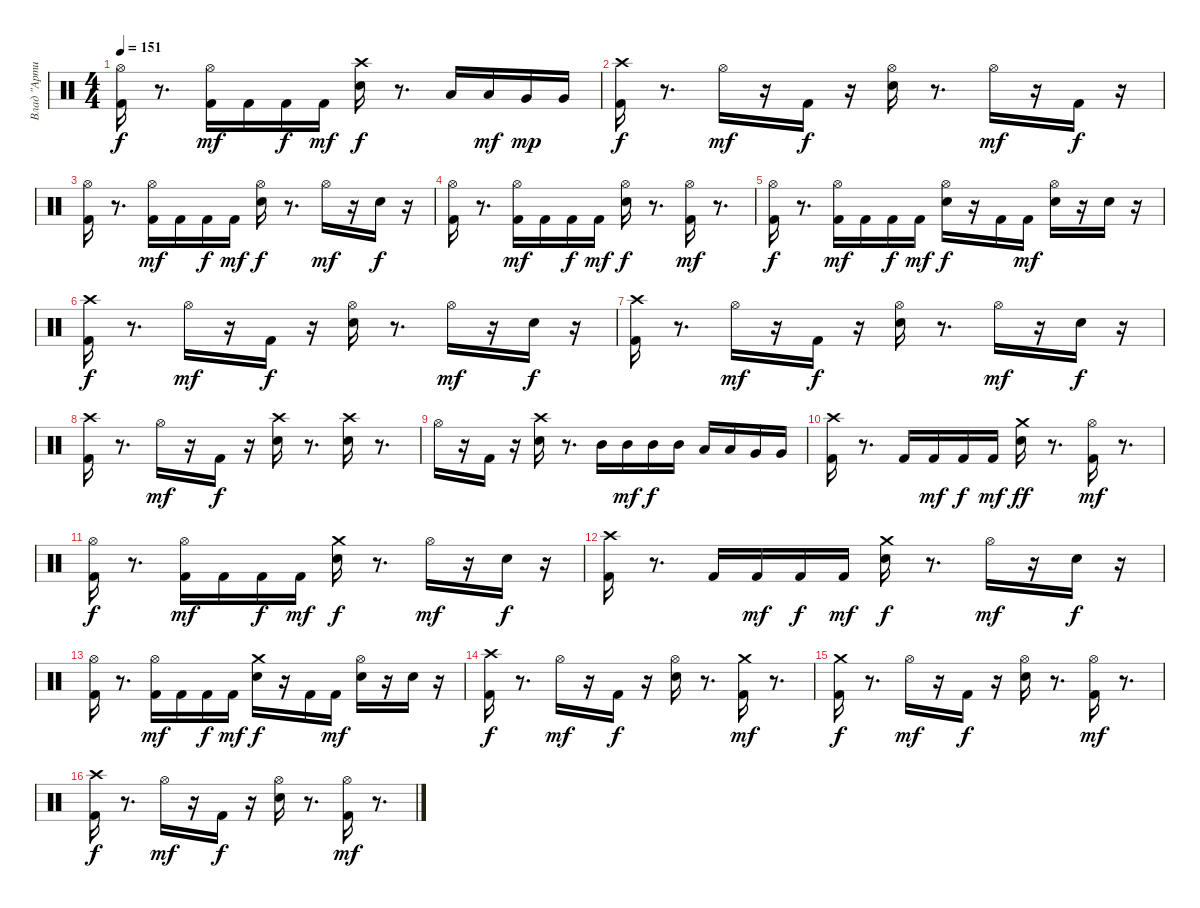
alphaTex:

\track ("Влад \"Артист\"" "Влад \"Арти") {instrument percussion}
\staff {score}
\articulation defaults
\ts (4 4)
\tempo 151
\clef neutral
\ks c
("Hi-Hat (open)" "Kick (hit) 2").16{dy f} r.8{d} ("Kick (hit) 2" "Hi-Hat (open)").16{dy mf} "Kick (hit) 2".16 "Kick (hit) 2".16{dy f} "Kick (hit) 2".16{dy mf} ("Snare (hit) 2" "Crash high (hit)").16{dy f} r.8{d} "Low Tom (hit)".16 "Low Tom (hit)".16{dy mf} "Very Low Tom (hit)".16{dy mp} "Very Low Tom (hit)".16 |
("Crash high (hit)" "Kick (hit) 2").16{dy f} r.8{d} "Hi-Hat (open)".16{dy mf} r.16 "Kick (hit) 2".16{dy f} r.16 ("Snare (hit) 2" "Hi-Hat (open)").16 r.8{d} "Hi-Hat (open)".16{dy mf} r.16 "Kick (hit) 2".16{dy f} r.16 |
("Kick (hit) 2" "Hi-Hat (open)").16 r.8{d} ("Hi-Hat (open)" "Kick (hit) 2").16{dy mf} "Kick (hit) 2".16 "Kick (hit) 2".16{dy f} "Kick (hit) 2".16{dy mf} ("Hi-Hat (open)" "Snare (hit) 2").16{dy f} r.8{d} "Hi-Hat (open)".16{dy mf} r.16 "Snare (hit) 2".16{dy f} r.16 |
("Hi-Hat (open)" "Kick (hit) 2").16 r.8{d} ("Hi-Hat (open)" "Kick (hit) 2").16{dy mf} "Kick (hit) 2".16 "Kick (hit) 2".16{dy f} "Kick (hit) 2".16{dy mf} ("Hi-Hat (open)" "Snare (hit) 2").16{dy f} r.8{d} ("Hi-Hat (open)" "Kick (hit) 2").16{dy mf} r.8{d} |
("Kick (hit) 2" "Hi-Hat (open)").16{dy f} r.8{d} ("Hi-Hat (open)" "Kick (hit) 2").16{dy mf} "Kick (hit) 2".16 "Kick (hit) 2".16{dy f} "Kick (hit) 2".16{dy mf} ("Hi-Hat (open)" "Snare (hit) 2").16{dy f} r.16 "Kick (hit) 2".16 "Kick (hit) 2".16{dy mf} ("Hi-Hat (open)" "Snare (hit) 2").16 r.16 "Snare (hit) 2".16 r.16 |
("Crash high (hit)" "Kick (hit) 2").16{dy f} r.8{d} "Hi-Hat (open)".16{dy mf} r.16 "Kick (hit) 2".16{dy f} r.16 ("Hi-Hat (open)" "Snare (hit) 2").16 r.8{d} "Hi-Hat (open)".16{dy mf} r.16 "Snare (hit) 2".16{dy f} r.16 |
("Crash high (hit)" "Kick (hit) 2").16 r.8{d} "Hi-Hat (open)".16{dy mf} r.16 "Kick (hit) 2".16{dy f} r.16 ("Snare (hit) 2" "Hi-Hat (open)").16 r.8{d} "Hi-Hat (open)".16{dy mf} r.16 "Snare (hit) 2".16{dy f} r.16 |
("Crash high (hit)" "Kick (hit) 2").16 r.8{d} "Hi-Hat (open)".16{dy mf} r.16 "Kick (hit) 2".16{dy f} r.16 ("Crash high (hit)" "Snare (hit) 2").16 r.8{d} ("Crash high (hit)" "Snare (hit) 2").16 r.8{d} |
"Hi-Hat (open)".16 r.16 "Kick (hit) 2".16 r.16 ("Snare (hit) 2" "Crash high (hit)").16 r.8{d} "Mid Tom (hit)".16 "Mid Tom (hit)".16{dy mf} "Mid Tom (hit)".16{dy f} "Mid Tom (hit)".16 "Low Tom (hit)".16 "Low Tom (hit)".16 "Very Low Tom (hit)".16 "Very Low Tom (hit)".16 |
("Kick (hit) 2" "Crash high (hit)").16 r.8{d} "Kick (hit) 2".16 "Kick (hit) 2".16{dy mf} "Kick (hit) 2".16{dy f} "Kick (hit) 2".16{dy mf} ("Snare (hit) 2" "Crash medium (hit)").16{dy ff} r.8{d} ("Hi-Hat (open)" "Kick (hit) 2").16{dy mf} r.8{d} |
("Kick (hit) 2" "Hi-Hat (open)").16{dy f} r.8{d} ("Hi-Hat (open)" "Kick (hit) 2").16{dy mf} "Kick (hit) 2".16 "Kick (hit) 2".16{dy f} "Kick (hit) 2".16{dy mf} ("Crash medium (hit)" "Snare (hit) 2").16{dy f} r.8{d} "Hi-Hat (open)".16{dy mf} r.16 "Snare (hit) 2".16{dy f} r.16 |
("Crash high (hit)" "Kick (hit) 2").16 r.8{d} "Kick (hit) 2".16 "Kick (hit) 2".16{dy mf} "Kick (hit) 2".16{dy f} "Kick (hit) 2".16{dy mf} ("Crash medium (hit)" "Snare (hit) 2").16{dy f} r.8{d} "Hi-Hat (open)".16{dy mf} r.16 "Snare (hit) 2".16{dy f} r.16 |
("Kick (hit) 2" "Hi-Hat (open)").16 r.8{d} ("Hi-Hat (open)" "Kick (hit) 2").16{dy mf} "Kick (hit) 2".16 "Kick (hit) 2".16{dy f} "Kick (hit) 2".16{dy mf} ("Crash medium (hit)" "Snare (hit) 2").16{dy f} r.16 "Kick (hit) 2".16 "Kick (hit) 2".16{dy mf} ("Hi-Hat (open)" "Snare (hit) 2").16 r.16 "Snare (hit) 2".16 r.16 |
("Kick (hit) 2" "Crash high (hit)").16{dy f} r.8{d} "Hi-Hat (open)".16{dy mf} r.16 "Kick (hit) 2".16{dy f} r.16 ("Snare (hit) 2" "Hi-Hat (open)").16 r.8{d} ("Kick (hit) 2" "Crash medium (hit)").16{dy mf} r.8{d} |
("Kick (hit) 2" "Crash medium (hit)").16{dy f} r.8{d} "Hi-Hat (open)".16{dy mf} r.16 "Kick (hit) 2".16{dy f} r.16 ("Snare (hit) 2" "Hi-Hat (open)").16 r.8{d} ("Hi-Hat (open)" "Kick (hit) 2").16{dy mf} r.8{d} |
("Crash high (hit)" "Kick (hit) 2").16{dy f} r.8{d} "Hi-Hat (open)".16{dy mf} r.16 "Kick (hit) 2".16{dy f} r.16 ("Hi-Hat (open)" "Snare (hit) 2").16 r.8{d} ("Hi-Hat (open)" "Kick (hit) 2").16{dy mf} r.8{d}
